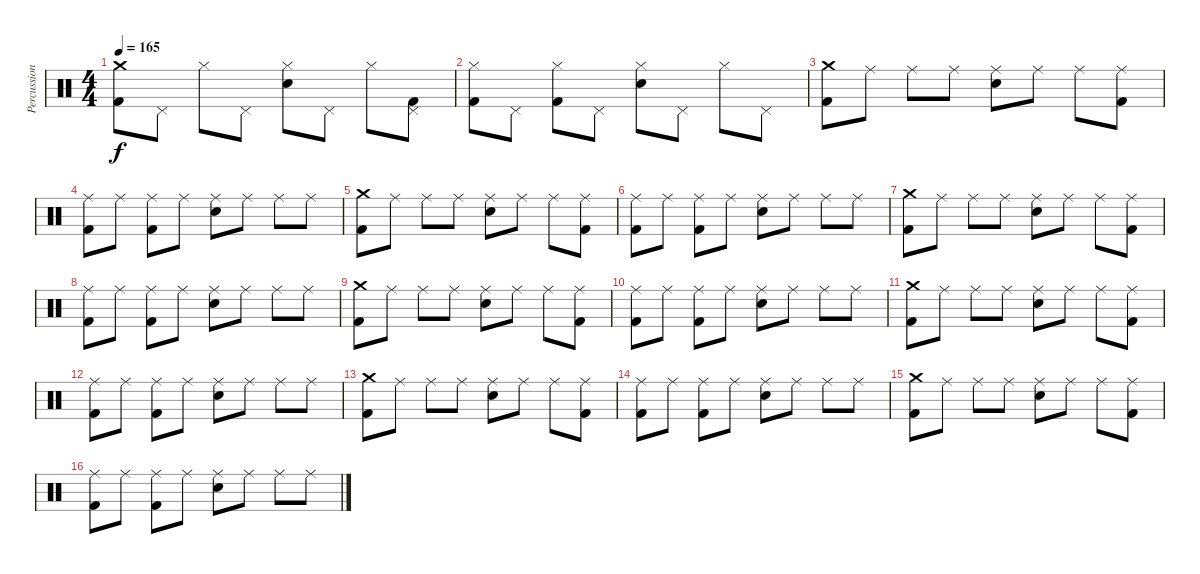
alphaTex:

\track ("Percussion" "Percussion") {instrument percussion}
\staff {score}
\articulation defaults
\ts (4 4)
\tempo 165
\clef neutral
\ks c
("Crash medium (hit)" "Kick (hit) 2").8{dy f} "Pedal Hi-Hat (hit)".8 "Hi-Hat (closed)".8 "Pedal Hi-Hat (hit)".8 ("Hi-Hat (closed)" "Electric Snare (hit)").8 "Pedal Hi-Hat (hit)".8 "Hi-Hat (closed)".8 ("Pedal Hi-Hat (hit)" "Kick (hit) 2").8 |
("Hi-Hat (closed)" "Kick (hit) 2").8 "Pedal Hi-Hat (hit)".8 ("Hi-Hat (closed)" "Kick (hit) 2").8 "Pedal Hi-Hat (hit)".8 ("Hi-Hat (closed)" "Electric Snare (hit)").8 "Pedal Hi-Hat (hit)".8 "Hi-Hat (closed)".8 "Pedal Hi-Hat (hit)".8 |
("Crash medium (hit)" "Kick (hit) 2").8 "Ride (middle)".8 "Ride (middle)".8 "Ride (middle)".8 ("Ride (middle)" "Electric Snare (hit)").8 "Ride (middle)".8 "Ride (middle)".8 ("Ride (middle)" "Kick (hit) 2").8 |
("Ride (middle)" "Kick (hit) 2").8 "Ride (middle)".8 ("Ride (middle)" "Kick (hit) 2").8 "Ride (middle)".8 ("Ride (middle)" "Electric Snare (hit)").8 "Ride (middle)".8 "Ride (middle)".8 "Ride (middle)".8 |
("Crash medium (hit)" "Kick (hit) 2").8 "Ride (middle)".8 "Ride (middle)".8 "Ride (middle)".8 ("Ride (middle)" "Electric Snare (hit)").8 "Ride (middle)".8 "Ride (middle)".8 ("Ride (middle)" "Kick (hit) 2").8 |
("Ride (middle)" "Kick (hit) 2").8 "Ride (middle)".8 ("Ride (middle)" "Kick (hit) 2").8 "Ride (middle)".8 ("Ride (middle)" "Electric Snare (hit)").8 "Ride (middle)".8 "Ride (middle)".8 "Ride (middle)".8 |
("Crash medium (hit)" "Kick (hit) 2").8{volume 12} "Ride (middle)".8 "Ride (middle)".8 "Ride (middle)".8 ("Ride (middle)" "Electric Snare (hit)").8 "Ride (middle)".8 "Ride (middle)".8 ("Ride (middle)" "Kick (hit) 2").8 |
("Ride (middle)" "Kick (hit) 2").8 "Ride (middle)".8 ("Ride (middle)" "Kick (hit) 2").8 "Ride (middle)".8 ("Ride (middle)" "Electric Snare (hit)").8 "Ride (middle)".8 "Ride (middle)".8 "Ride (middle)".8 |
("Crash medium (hit)" "Kick (hit) 2").8 "Ride (middle)".8 "Ride (middle)".8 "Ride (middle)".8 ("Ride (middle)" "Electric Snare (hit)").8 "Ride (middle)".8 "Ride (middle)".8 ("Ride (middle)" "Kick (hit) 2").8 |
("Ride (middle)" "Kick (hit) 2").8 "Ride (middle)".8 ("Ride (middle)" "Kick (hit) 2").8 "Ride (middle)".8 ("Ride (middle)" "Electric Snare (hit)").8 "Ride (middle)".8 "Ride (middle)".8 "Ride (middle)".8 |
("Crash medium (hit)" "Kick (hit) 2").8{volume 7} "Ride (middle)".8 "Ride (middle)".8 "Ride (middle)".8 ("Ride (middle)" "Electric Snare (hit)").8 "Ride (middle)".8 "Ride (middle)".8 ("Ride (middle)" "Kick (hit) 2").8 |
("Ride (middle)" "Kick (hit) 2").8 "Ride (middle)".8 ("Ride (middle)" "Kick (hit) 2").8 "Ride (middle)".8 ("Ride (middle)" "Electric Snare (hit)").8 "Ride (middle)".8 "Ride (middle)".8 "Ride (middle)".8 |
("Crash medium (hit)" "Kick (hit) 2").8 "Ride (middle)".8 "Ride (middle)".8 "Ride (middle)".8 ("Ride (middle)" "Electric Snare (hit)").8 "Ride (middle)".8 "Ride (middle)".8 ("Ride (middle)" "Kick (hit) 2").8 |
("Ride (middle)" "Kick (hit) 2").8 "Ride (middle)".8 ("Ride (middle)" "Kick (hit) 2").8 "Ride (middle)".8 ("Ride (middle)" "Electric Snare (hit)").8 "Ride (middle)".8 "Ride (middle)".8 "Ride (middle)".8 |
("Crash medium (hit)" "Kick (hit) 2").8{volume 0} "Ride (middle)".8 "Ride (middle)".8 "Ride (middle)".8 ("Ride (middle)" "Electric Snare (hit)").8 "Ride (middle)".8 "Ride (middle)".8 ("Ride (middle)" "Kick (hit) 2").8 |
("Ride (middle)" "Kick (hit) 2").8 "Ride (middle)".8 ("Ride (middle)" "Kick (hit) 2").8 "Ride (middle)".8 ("Ride (middle)" "Electric Snare (hit)").8 "Ride (middle)".8 "Ride (middle)".8 "Ride (middle)".8
